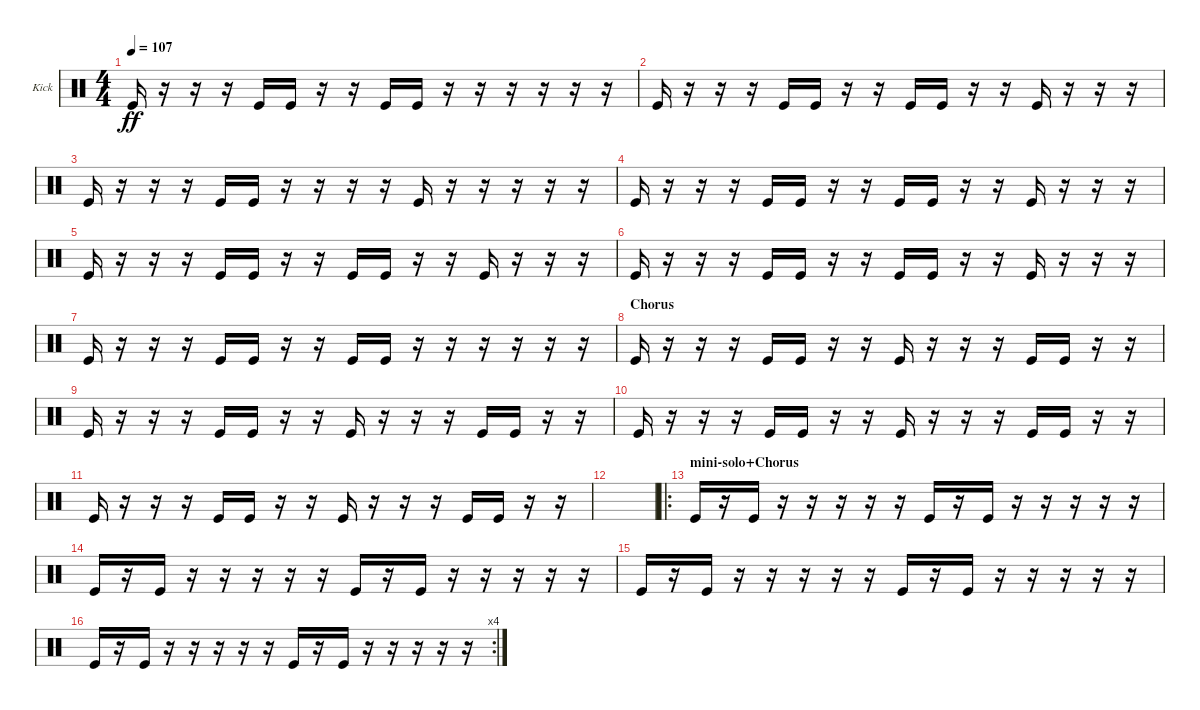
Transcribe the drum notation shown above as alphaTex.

\bracketExtendMode groupsimilarinstruments
\firstSystemTrackNameOrientation horizontal
\otherSystemsTrackNameOrientation horizontal
\track ("Kick" "Kick") {instrument percussion}
\staff {score}
\articulation defaults
\ts (4 4)
\tempo 107
\clef neutral
\ks c "Kick (hit)".16{dy ff}
r.16 r.16 r.16 "Kick (hit)".16 "Kick (hit)".16 r.16 r.16 "Kick (hit)".16 "Kick (hit)".16 r.16 r.16 r.16 r.16 r.16 r.16 |
"Kick (hit)".16 r.16 r.16 r.16 "Kick (hit)".16 "Kick (hit)".16 r.16 r.16 "Kick (hit)".16 "Kick (hit)".16 r.16 r.16 "Kick (hit)".16 r.16 r.16 r.16 |
"Kick (hit)".16 r.16 r.16 r.16 "Kick (hit)".16 "Kick (hit)".16 r.16 r.16 r.16 r.16 "Kick (hit)".16 r.16 r.16 r.16 r.16 r.16 |
"Kick (hit)".16 r.16 r.16 r.16 "Kick (hit)".16 "Kick (hit)".16 r.16 r.16 "Kick (hit)".16 "Kick (hit)".16 r.16 r.16 "Kick (hit)".16 r.16 r.16 r.16 |
"Kick (hit)".16 r.16 r.16 r.16 "Kick (hit)".16 "Kick (hit)".16 r.16 r.16 "Kick (hit)".16 "Kick (hit)".16 r.16 r.16 "Kick (hit)".16 r.16 r.16 r.16 |
"Kick (hit)".16 r.16 r.16 r.16 "Kick (hit)".16 "Kick (hit)".16 r.16 r.16 "Kick (hit)".16 "Kick (hit)".16 r.16 r.16 "Kick (hit)".16 r.16 r.16 r.16 |
"Kick (hit)".16 r.16 r.16 r.16 "Kick (hit)".16 "Kick (hit)".16 r.16 r.16 "Kick (hit)".16 "Kick (hit)".16 r.16 r.16 r.16 r.16 r.16 r.16 |
\section ("" "Chorus")
"Kick (hit)".16 r.16 r.16 r.16 "Kick (hit)".16 "Kick (hit)".16 r.16 r.16 "Kick (hit)".16 r.16 r.16 r.16 "Kick (hit)".16 "Kick (hit)".16 r.16 r.16 |
"Kick (hit)".16 r.16 r.16 r.16 "Kick (hit)".16 "Kick (hit)".16 r.16 r.16 "Kick (hit)".16 r.16 r.16 r.16 "Kick (hit)".16 "Kick (hit)".16 r.16 r.16 |
"Kick (hit)".16 r.16 r.16 r.16 "Kick (hit)".16 "Kick (hit)".16 r.16 r.16 "Kick (hit)".16 r.16 r.16 r.16 "Kick (hit)".16 "Kick (hit)".16 r.16 r.16 |
"Kick (hit)".16 r.16 r.16 r.16 "Kick (hit)".16 "Kick (hit)".16 r.16 r.16 "Kick (hit)".16 r.16 r.16 r.16 "Kick (hit)".16 "Kick (hit)".16 r.16 r.16 |
|
\ro
\section ("" "mini-solo+Chorus")
"Kick (hit)".16 r.16 "Kick (hit)".16 r.16 r.16 r.16 r.16 r.16 "Kick (hit)".16 r.16 "Kick (hit)".16 r.16 r.16 r.16 r.16 r.16 |
"Kick (hit)".16 r.16 "Kick (hit)".16 r.16 r.16 r.16 r.16 r.16 "Kick (hit)".16 r.16 "Kick (hit)".16 r.16 r.16 r.16 r.16 r.16 |
"Kick (hit)".16 r.16 "Kick (hit)".16 r.16 r.16 r.16 r.16 r.16 "Kick (hit)".16 r.16 "Kick (hit)".16 r.16 r.16 r.16 r.16 r.16 |
\rc 4 "Kick (hit)".16
r.16 "Kick (hit)".16 r.16 r.16 r.16 r.16 r.16 "Kick (hit)".16 r.16 "Kick (hit)".16 r.16 r.16 r.16 r.16 r.16
